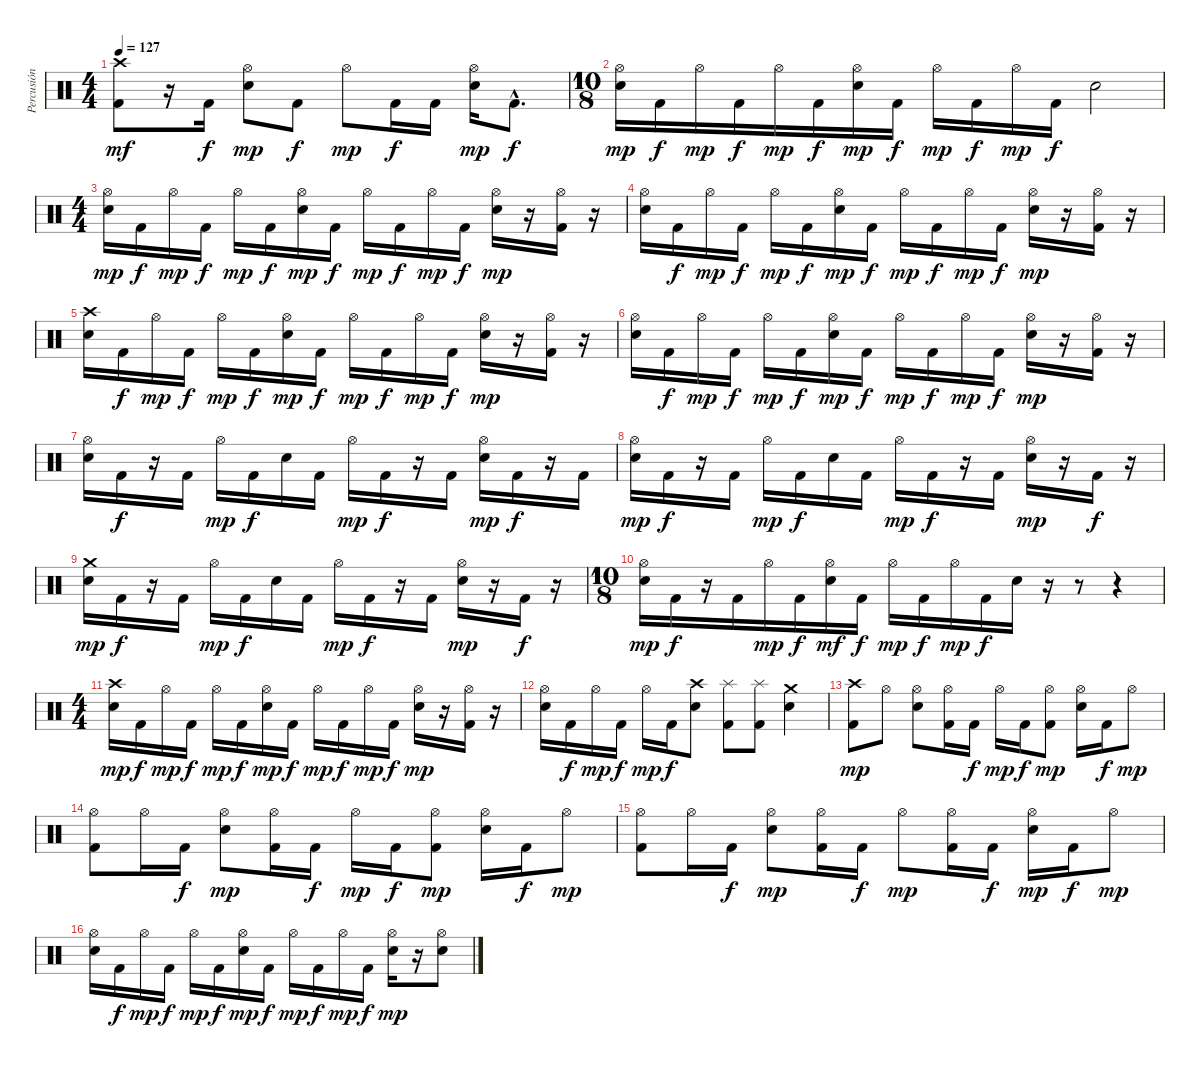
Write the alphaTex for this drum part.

\track ("Percusión" "Percusión") {instrument percussion}
\staff {score}
\articulation defaults
\ts (4 4)
\tempo 127
\clef neutral
\ks c
("Crash high (hit)" "Kick (hit) 2").8{dy mf} r.16 "Kick (hit) 2".16{dy f} ("Hi-Hat (open)" "Electric Snare (hit)").8{dy mp} "Kick (hit) 2".8{dy f} "Hi-Hat (open)".8{dy mp} "Kick (hit) 2".16{dy f} "Kick (hit) 2".16 ("Hi-Hat (open)" "Electric Snare (hit)").16{dy mp} "Kick (hit) 2"{hac}.8{d dy f} |
\ts (10 8)
("Hi-Hat (open)" "Electric Snare (hit)").16{dy mp} "Kick (hit) 2".16{dy f} "Hi-Hat (open)".16{dy mp} "Kick (hit) 2".16{dy f} "Hi-Hat (open)".16{dy mp} "Kick (hit) 2".16{dy f} ("Hi-Hat (open)" "Electric Snare (hit)").16{dy mp} "Kick (hit) 2".16{dy f} "Hi-Hat (open)".16{dy mp} "Kick (hit) 2".16{dy f} "Hi-Hat (open)".16{dy mp} "Kick (hit) 2".16{dy f} "Electric Snare (hit)".2 |
\ts (4 4)
("Hi-Hat (open)" "Electric Snare (hit)").16{dy mp} "Kick (hit) 2".16{dy f} "Hi-Hat (open)".16{dy mp} "Kick (hit) 2".16{dy f} "Hi-Hat (open)".16{dy mp} "Kick (hit) 2".16{dy f} ("Hi-Hat (open)" "Electric Snare (hit)").16{dy mp} "Kick (hit) 2".16{dy f} "Hi-Hat (open)".16{dy mp} "Kick (hit) 2".16{dy f} "Hi-Hat (open)".16{dy mp} "Kick (hit) 2".16{dy f} ("Hi-Hat (open)" "Electric Snare (hit)").16{dy mp} r.16 ("Hi-Hat (open)" "Kick (hit) 2").16 r.16 |
("Hi-Hat (open)" "Electric Snare (hit)").16 "Kick (hit) 2".16{dy f} "Hi-Hat (open)".16{dy mp} "Kick (hit) 2".16{dy f} "Hi-Hat (open)".16{dy mp} "Kick (hit) 2".16{dy f} ("Hi-Hat (open)" "Electric Snare (hit)").16{dy mp} "Kick (hit) 2".16{dy f} "Hi-Hat (open)".16{dy mp} "Kick (hit) 2".16{dy f} "Hi-Hat (open)".16{dy mp} "Kick (hit) 2".16{dy f} ("Hi-Hat (open)" "Electric Snare (hit)").16{dy mp} r.16 ("Hi-Hat (open)" "Kick (hit) 2").16 r.16 |
("Crash high (hit)" "Electric Snare (hit)").16 "Kick (hit) 2".16{dy f} "Hi-Hat (open)".16{dy mp} "Kick (hit) 2".16{dy f} "Hi-Hat (open)".16{dy mp} "Kick (hit) 2".16{dy f} ("Hi-Hat (open)" "Electric Snare (hit)").16{dy mp} "Kick (hit) 2".16{dy f} "Hi-Hat (open)".16{dy mp} "Kick (hit) 2".16{dy f} "Hi-Hat (open)".16{dy mp} "Kick (hit) 2".16{dy f} ("Hi-Hat (open)" "Electric Snare (hit)").16{dy mp} r.16 ("Hi-Hat (open)" "Kick (hit) 2").16 r.16 |
("Hi-Hat (open)" "Electric Snare (hit)").16 "Kick (hit) 2".16{dy f} "Hi-Hat (open)".16{dy mp} "Kick (hit) 2".16{dy f} "Hi-Hat (open)".16{dy mp} "Kick (hit) 2".16{dy f} ("Hi-Hat (open)" "Electric Snare (hit)").16{dy mp} "Kick (hit) 2".16{dy f} "Hi-Hat (open)".16{dy mp} "Kick (hit) 2".16{dy f} "Hi-Hat (open)".16{dy mp} "Kick (hit) 2".16{dy f} ("Hi-Hat (open)" "Electric Snare (hit)").16{dy mp} r.16 ("Hi-Hat (open)" "Kick (hit) 2").16 r.16 |
("Hi-Hat (open)" "Electric Snare (hit)").16 "Kick (hit) 2".16{dy f} r.16 "Kick (hit) 2".16 "Hi-Hat (open)".16{dy mp} "Kick (hit) 2".16{dy f} "Electric Snare (hit)".16 "Kick (hit) 2".16 "Hi-Hat (open)".16{dy mp} "Kick (hit) 2".16{dy f} r.16 "Kick (hit) 2".16 ("Hi-Hat (open)" "Electric Snare (hit)").16{dy mp} "Kick (hit) 2".16{dy f} r.16 "Kick (hit) 2".16 |
("Hi-Hat (open)" "Electric Snare (hit)").16{dy mp} "Kick (hit) 2".16{dy f} r.16 "Kick (hit) 2".16 "Hi-Hat (open)".16{dy mp} "Kick (hit) 2".16{dy f} "Electric Snare (hit)".16 "Kick (hit) 2".16 "Hi-Hat (open)".16{dy mp} "Kick (hit) 2".16{dy f} r.16 "Kick (hit) 2".16 ("Hi-Hat (open)" "Electric Snare (hit)").16{dy mp} r.16 "Kick (hit) 2".16{dy f} r.16 |
("Crash medium (hit)" "Electric Snare (hit)").16{dy mp} "Kick (hit) 2".16{dy f} r.16 "Kick (hit) 2".16 "Hi-Hat (open)".16{dy mp} "Kick (hit) 2".16{dy f} "Electric Snare (hit)".16 "Kick (hit) 2".16 "Hi-Hat (open)".16{dy mp} "Kick (hit) 2".16{dy f} r.16 "Kick (hit) 2".16 ("Hi-Hat (open)" "Electric Snare (hit)").16{dy mp} r.16 "Kick (hit) 2".16{dy f} r.16 |
\ts (10 8)
("Hi-Hat (open)" "Electric Snare (hit)").16{dy mp} "Kick (hit) 2".16{dy f} r.16 "Kick (hit) 2".16 "Hi-Hat (open)".16{dy mp} "Kick (hit) 2".16{dy f} ("Hi-Hat (open)" "Electric Snare (hit)").16{dy mf} "Kick (hit) 2".16{dy f} "Hi-Hat (open)".16{dy mp} "Kick (hit) 2".16{dy f} "Hi-Hat (open)".16{dy mp} "Kick (hit) 2".16{dy f} "Electric Snare (hit)".16 r.16 r.8 r.4 |
\ts (4 4)
("Crash high (hit)" "Electric Snare (hit)").16{dy mp} "Kick (hit) 2".16{dy f} "Hi-Hat (open)".16{dy mp} "Kick (hit) 2".16{dy f} "Hi-Hat (open)".16{dy mp} "Kick (hit) 2".16{dy f} ("Hi-Hat (open)" "Electric Snare (hit)").16{dy mp} "Kick (hit) 2".16{dy f} "Hi-Hat (open)".16{dy mp} "Kick (hit) 2".16{dy f} "Hi-Hat (open)".16{dy mp} "Kick (hit) 2".16{dy f} ("Hi-Hat (open)" "Electric Snare (hit)").16{dy mp} r.16 ("Hi-Hat (open)" "Kick (hit) 2").16 r.16 |
("Hi-Hat (open)" "Electric Snare (hit)").16 "Kick (hit) 2".16{dy f} "Hi-Hat (open)".16{dy mp} "Kick (hit) 2".16{dy f} "Hi-Hat (open)".16{dy mp} "Kick (hit) 2".16{dy f} ("Crash high (hit)" "Electric Snare (hit)").8 ("Splash (hit)" "Kick (hit) 2").8 ("Splash (hit)" "Kick (hit) 2").8 ("Crash medium (hit)" "Electric Snare (hit)").4 |
("Crash high (hit)" "Kick (hit) 2").8{dy mp} "Hi-Hat (open)".8 ("Hi-Hat (open)" "Electric Snare (hit)").8 ("Hi-Hat (open)" "Kick (hit) 2").16 "Kick (hit) 2".16{dy f} "Hi-Hat (open)".16{dy mp} "Kick (hit) 2".16{dy f} ("Hi-Hat (open)" "Kick (hit) 2").8{dy mp} ("Hi-Hat (open)" "Electric Snare (hit)").16 "Kick (hit) 2".16{dy f} "Hi-Hat (open)".8{dy mp} |
("Hi-Hat (open)" "Kick (hit) 2").8 "Hi-Hat (open)".16 "Kick (hit) 2".16{dy f} ("Hi-Hat (open)" "Electric Snare (hit)").8{dy mp} ("Hi-Hat (open)" "Kick (hit) 2").16 "Kick (hit) 2".16{dy f} "Hi-Hat (open)".16{dy mp} "Kick (hit) 2".16{dy f} ("Hi-Hat (open)" "Kick (hit) 2").8{dy mp} ("Hi-Hat (open)" "Electric Snare (hit)").16 "Kick (hit) 2".16{dy f} "Hi-Hat (open)".8{dy mp} |
("Hi-Hat (open)" "Kick (hit) 2").8 "Hi-Hat (open)".16 "Kick (hit) 2".16{dy f} ("Hi-Hat (open)" "Electric Snare (hit)").8{dy mp} ("Hi-Hat (open)" "Kick (hit) 2").16 "Kick (hit) 2".16{dy f} "Hi-Hat (open)".8{dy mp} ("Hi-Hat (open)" "Kick (hit) 2").16 "Kick (hit) 2".16{dy f} ("Hi-Hat (open)" "Electric Snare (hit)").16{dy mp} "Kick (hit) 2".16{dy f} "Hi-Hat (open)".8{dy mp} |
("Hi-Hat (open)" "Electric Snare (hit)").16 "Kick (hit) 2".16{dy f} "Hi-Hat (open)".16{dy mp} "Kick (hit) 2".16{dy f} "Hi-Hat (open)".16{dy mp} "Kick (hit) 2".16{dy f} ("Hi-Hat (open)" "Electric Snare (hit)").16{dy mp} "Kick (hit) 2".16{dy f} "Hi-Hat (open)".16{dy mp} "Kick (hit) 2".16{dy f} "Hi-Hat (open)".16{dy mp} "Kick (hit) 2".16{dy f} ("Hi-Hat (open)" "Electric Snare (hit)").16{dy mp} r.16 ("Hi-Hat (open)" "Electric Snare (hit)").8
